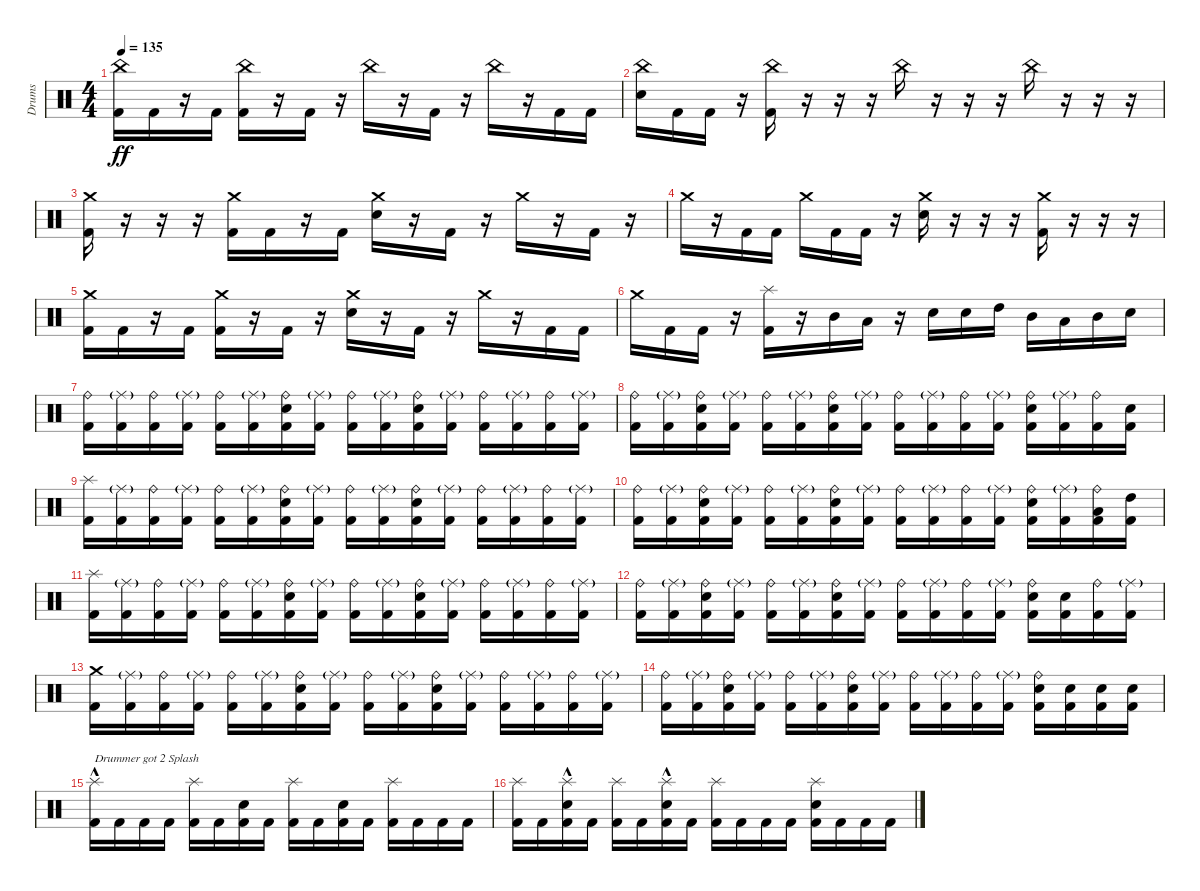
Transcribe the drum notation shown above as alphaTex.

\track ("Drums" "Drums") {instrument percussion}
\staff {score}
\articulation defaults
\ts (4 4)
\tempo 135
\clef neutral
\ks c
("China (hit)" "Kick (hit) 2").16{dy ff} "Kick (hit) 2".16 r.16 "Kick (hit) 2".16 ("China (hit)" "Kick (hit) 2").16 r.16 "Kick (hit) 2".16 r.16 "China (hit)".16 r.16 "Kick (hit) 2".16 r.16 "China (hit)".16 r.16 "Kick (hit) 2".16 "Kick (hit) 2".16 |
("China (hit)" "Electric Snare (hit)").16 "Kick (hit) 2".16 "Kick (hit) 2".16 r.16 ("China (hit)" "Kick (hit) 2").16 r.16 r.16 r.16 "China (hit)".16 r.16 r.16 r.16 "China (hit)".16 r.16 r.16 r.16 |
("Crash medium (hit)" "Kick (hit) 2").16 r.16 r.16 r.16 ("Crash medium (hit)" "Kick (hit) 2").16 "Kick (hit) 2".16 r.16 "Kick (hit) 2".16 ("Crash medium (hit)" "Electric Snare (hit)").16 r.16 "Kick (hit) 2".16 r.16 "Crash medium (hit)".16 r.16 "Kick (hit) 2".16 r.16 |
"Crash medium (hit)".16 r.16 "Kick (hit) 2".16 "Kick (hit) 2".16 "Crash medium (hit)".16 "Kick (hit) 2".16 "Kick (hit) 2".16 r.16 ("Crash medium (hit)" "Electric Snare (hit)").16 r.16 r.16 r.16 ("Crash medium (hit)" "Kick (hit) 2").16 r.16 r.16 r.16 |
("Crash medium (hit)" "Kick (hit) 2").16 "Kick (hit) 2".16 r.16 "Kick (hit) 2".16 ("Crash medium (hit)" "Kick (hit) 2").16 r.16 "Kick (hit) 2".16 r.16 ("Crash medium (hit)" "Electric Snare (hit)").16 r.16 "Kick (hit) 2".16 r.16 "Crash medium (hit)".16 r.16 "Kick (hit) 2".16 "Kick (hit) 2".16 |
"Crash medium (hit)".16 "Kick (hit) 2".16 "Kick (hit) 2".16 r.16 ("Splash (hit)" "Kick (hit) 2").16 r.16 "Mid Tom (hit)".16 "Low Tom (hit)".16 r.16 "Electric Snare (hit)".16 "Electric Snare (hit)".16 "High Tom (hit)".16 "Mid Tom (hit)".16 "Low Tom (hit)".16 "Mid Tom (hit)".16 "Electric Snare (hit)".16 |
("Ride (bell)" "Kick (hit) 2").16 ("Ride (middle)"{g} "Kick (hit) 2").16 ("Ride (bell)" "Kick (hit) 2").16 ("Ride (middle)"{g} "Kick (hit) 2").16 ("Ride (bell)" "Kick (hit) 2").16 ("Ride (middle)"{g} "Kick (hit) 2").16 ("Ride (bell)" "Electric Snare (hit)" "Kick (hit) 2").16 ("Ride (middle)"{g} "Kick (hit) 2").16 ("Ride (bell)" "Kick (hit) 2").16 ("Ride (middle)"{g} "Kick (hit) 2").16 ("Ride (bell)" "Electric Snare (hit)" "Kick (hit) 2").16 ("Ride (middle)"{g} "Kick (hit) 2").16 ("Ride (bell)" "Kick (hit) 2").16 ("Ride (middle)"{g} "Kick (hit) 2").16 ("Ride (bell)" "Kick (hit) 2").16 ("Ride (middle)"{g} "Kick (hit) 2").16 |
("Ride (bell)" "Kick (hit) 2").16 ("Ride (middle)"{g} "Kick (hit) 2").16 ("Ride (bell)" "Electric Snare (hit)" "Kick (hit) 2").16 ("Ride (middle)"{g} "Kick (hit) 2").16 ("Ride (bell)" "Kick (hit) 2").16 ("Ride (middle)"{g} "Kick (hit) 2").16 ("Ride (bell)" "Electric Snare (hit)" "Kick (hit) 2").16 ("Ride (middle)"{g} "Kick (hit) 2").16 ("Ride (bell)" "Kick (hit) 2").16 ("Ride (middle)"{g} "Kick (hit) 2").16 ("Ride (bell)" "Kick (hit) 2").16 ("Ride (middle)"{g} "Kick (hit) 2").16 ("Ride (bell)" "Electric Snare (hit)" "Kick (hit) 2").16 ("Ride (middle)"{g} "Kick (hit) 2").16 ("Ride (bell)" "Kick (hit) 2").16 ("Electric Snare (hit)" "Kick (hit) 2").16 |
("Splash (hit)" "Kick (hit) 2").16 ("Ride (middle)"{g} "Kick (hit) 2").16 ("Ride (bell)" "Kick (hit) 2").16 ("Ride (middle)"{g} "Kick (hit) 2").16 ("Ride (bell)" "Kick (hit) 2").16 ("Ride (middle)"{g} "Kick (hit) 2").16 ("Ride (bell)" "Electric Snare (hit)" "Kick (hit) 2").16 ("Ride (middle)"{g} "Kick (hit) 2").16 ("Ride (bell)" "Kick (hit) 2").16 ("Ride (middle)"{g} "Kick (hit) 2").16 ("Ride (bell)" "Electric Snare (hit)" "Kick (hit) 2").16 ("Ride (middle)"{g} "Kick (hit) 2").16 ("Ride (bell)" "Kick (hit) 2").16 ("Ride (middle)"{g} "Kick (hit) 2").16 ("Ride (bell)" "Kick (hit) 2").16 ("Ride (middle)"{g} "Kick (hit) 2").16 |
("Ride (bell)" "Kick (hit) 2").16 ("Ride (middle)"{g} "Kick (hit) 2").16 ("Ride (bell)" "Electric Snare (hit)" "Kick (hit) 2").16 ("Ride (middle)"{g} "Kick (hit) 2").16 ("Ride (bell)" "Kick (hit) 2").16 ("Ride (middle)"{g} "Kick (hit) 2").16 ("Ride (bell)" "Electric Snare (hit)" "Kick (hit) 2").16 ("Ride (middle)"{g} "Kick (hit) 2").16 ("Ride (bell)" "Kick (hit) 2").16 ("Ride (middle)"{g} "Kick (hit) 2").16 ("Ride (bell)" "Kick (hit) 2").16 ("Ride (middle)"{g} "Kick (hit) 2").16 ("Ride (bell)" "Electric Snare (hit)" "Kick (hit) 2").16 ("Ride (middle)"{g} "Kick (hit) 2").16 ("Ride (bell)" "Low Tom (hit)" "Kick (hit) 2").16 ("High Tom (hit)" "Kick (hit) 2").16 |
("Splash (hit)" "Kick (hit) 2").16 ("Ride (middle)"{g} "Kick (hit) 2").16 ("Ride (bell)" "Kick (hit) 2").16 ("Ride (middle)"{g} "Kick (hit) 2").16 ("Ride (bell)" "Kick (hit) 2").16 ("Ride (middle)"{g} "Kick (hit) 2").16 ("Ride (bell)" "Electric Snare (hit)" "Kick (hit) 2").16 ("Ride (middle)"{g} "Kick (hit) 2").16 ("Ride (bell)" "Kick (hit) 2").16 ("Ride (middle)"{g} "Kick (hit) 2").16 ("Ride (bell)" "Electric Snare (hit)" "Kick (hit) 2").16 ("Ride (middle)"{g} "Kick (hit) 2").16 ("Ride (bell)" "Kick (hit) 2").16 ("Ride (middle)"{g} "Kick (hit) 2").16 ("Ride (bell)" "Kick (hit) 2").16 ("Ride (middle)"{g} "Kick (hit) 2").16 |
("Ride (bell)" "Kick (hit) 2").16 ("Ride (middle)"{g} "Kick (hit) 2").16 ("Ride (bell)" "Electric Snare (hit)" "Kick (hit) 2").16 ("Ride (middle)"{g} "Kick (hit) 2").16 ("Ride (bell)" "Kick (hit) 2").16 ("Ride (middle)"{g} "Kick (hit) 2").16 ("Ride (bell)" "Electric Snare (hit)" "Kick (hit) 2").16 ("Ride (middle)"{g} "Kick (hit) 2").16 ("Ride (bell)" "Kick (hit) 2").16 ("Ride (middle)"{g} "Kick (hit) 2").16 ("Ride (bell)" "Kick (hit) 2").16 ("Ride (middle)"{g} "Kick (hit) 2").16 ("Ride (bell)" "Electric Snare (hit)" "Kick (hit) 2").16 ("Electric Snare (hit)" "Kick (hit) 2").16 ("Ride (bell)" "Kick (hit) 2").16 ("Ride (middle)"{g} "Kick (hit) 2").16 |
("Crash medium (hit)" "Kick (hit) 2").16 ("Ride (middle)"{g} "Kick (hit) 2").16 ("Ride (bell)" "Kick (hit) 2").16 ("Ride (middle)"{g} "Kick (hit) 2").16 ("Ride (bell)" "Kick (hit) 2").16 ("Ride (middle)"{g} "Kick (hit) 2").16 ("Ride (bell)" "Electric Snare (hit)" "Kick (hit) 2").16 ("Ride (middle)"{g} "Kick (hit) 2").16 ("Ride (bell)" "Kick (hit) 2").16 ("Ride (middle)"{g} "Kick (hit) 2").16 ("Ride (bell)" "Electric Snare (hit)" "Kick (hit) 2").16 ("Ride (middle)"{g} "Kick (hit) 2").16 ("Ride (bell)" "Kick (hit) 2").16 ("Ride (middle)"{g} "Kick (hit) 2").16 ("Ride (bell)" "Kick (hit) 2").16 ("Ride (middle)"{g} "Kick (hit) 2").16 |
("Ride (bell)" "Kick (hit) 2").16 ("Ride (middle)"{g} "Kick (hit) 2").16 ("Ride (bell)" "Electric Snare (hit)" "Kick (hit) 2").16 ("Ride (middle)"{g} "Kick (hit) 2").16 ("Ride (bell)" "Kick (hit) 2").16 ("Ride (middle)"{g} "Kick (hit) 2").16 ("Ride (bell)" "Electric Snare (hit)" "Kick (hit) 2").16 ("Ride (middle)"{g} "Kick (hit) 2").16 ("Ride (bell)" "Kick (hit) 2").16 ("Ride (middle)"{g} "Kick (hit) 2").16 ("Ride (bell)" "Kick (hit) 2").16 ("Ride (middle)"{g} "Kick (hit) 2").16 ("Ride (bell)" "Electric Snare (hit)" "Kick (hit) 2").16 ("Electric Snare (hit)" "Kick (hit) 2").16 ("Electric Snare (hit)" "Kick (hit) 2").16 ("Electric Snare (hit)" "Kick (hit) 2").16 |
("Splash (hit)"{hac} "Kick (hit) 2").16{txt "Drummer got 2 Splash"} "Kick (hit) 2".16 "Kick (hit) 2".16 "Kick (hit) 2".16 ("Splash (hit)" "Kick (hit) 2").16 "Kick (hit) 2".16 ("Electric Snare (hit)" "Kick (hit) 2").16 "Kick (hit) 2".16 ("Splash (hit)" "Kick (hit) 2").16 "Kick (hit) 2".16 ("Electric Snare (hit)" "Kick (hit) 2").16 "Kick (hit) 2".16 ("Splash (hit)" "Kick (hit) 2").16 "Kick (hit) 2".16 "Kick (hit) 2".16 "Kick (hit) 2".16 |
("Splash (hit)" "Kick (hit) 2").16 "Kick (hit) 2".16 ("Splash (hit)"{hac} "Electric Snare (hit)" "Kick (hit) 2").16 "Kick (hit) 2".16 ("Splash (hit)" "Kick (hit) 2").16 "Kick (hit) 2".16 ("Splash (hit)"{hac} "Electric Snare (hit)" "Kick (hit) 2").16 "Kick (hit) 2".16 ("Splash (hit)" "Kick (hit) 2").16 "Kick (hit) 2".16 "Kick (hit) 2".16 "Kick (hit) 2".16 ("Splash (hit)" "Electric Snare (hit)" "Kick (hit) 2").16 "Kick (hit) 2".16 "Kick (hit) 2".16 "Kick (hit) 2".16
